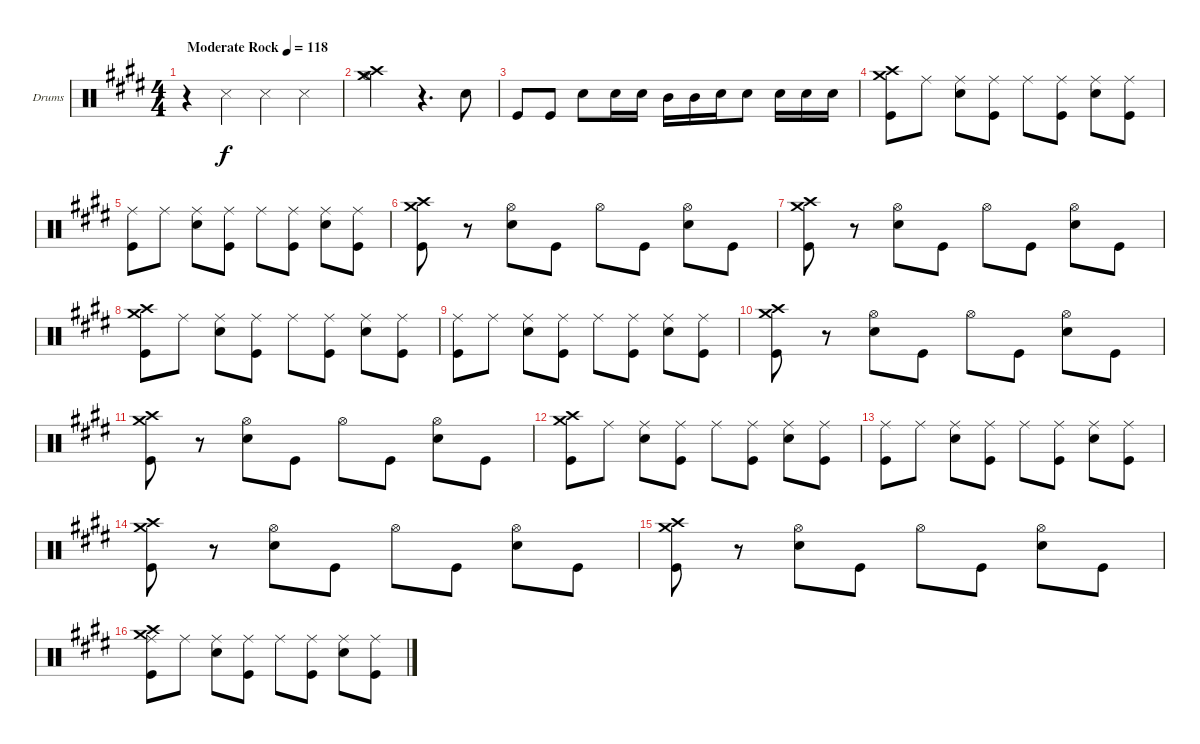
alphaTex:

\defaultSystemsLayout 4
\bracketExtendMode groupsimilarinstruments
\firstSystemTrackNameOrientation horizontal
\otherSystemsTrackNameOrientation horizontal
\track ("Drumkit" "Drums") {instrument percussion}
\staff {score}
\articulation defaults
\ts (4 4)
\tempo (118 "Moderate Rock")
\clef neutral
\ks e
r.4{dy f} "Snare (side stick) 3".4 "Snare (side stick) 3".4 "Snare (side stick) 3".4 |
("Crash medium (hit)" "Crash high (hit)" "Hi-Hat (open)").2 r.4{d} "Snare (hit) 2".8 |
"Kick (hit)".8 "Kick (hit)".8 "Snare (hit) 2".8 "Snare (hit) 2".16 "Snare (hit) 2".16 "Mid Tom (hit)".16 "Mid Tom (hit)".16 "Snare (hit) 2".16 "Snare (hit) 2".8 "Snare (hit) 2".16 "Snare (hit) 2".16 "Snare (hit) 2".16 |
("Crash medium (hit)" "Crash high (hit)" "Kick (hit)").8 "Ride (middle)".8 ("Ride (middle)" "Snare (hit) 2").8 ("Ride (middle)" "Kick (hit)").8 "Ride (middle)".8 ("Ride (middle)" "Kick (hit)").8 ("Ride (middle)" "Snare (hit) 2").8 ("Ride (middle)" "Kick (hit)").8 |
("Ride (middle)" "Kick (hit)").8 "Ride (middle)".8 ("Ride (middle)" "Snare (hit) 2").8 ("Ride (middle)" "Kick (hit)").8 "Ride (middle)".8 ("Ride (middle)" "Kick (hit)").8 ("Ride (middle)" "Snare (hit) 2").8 ("Ride (middle)" "Kick (hit)").8 |
("Crash medium (hit)" "Crash high (hit)" "Kick (hit)").8 r.8 ("Hi-Hat (open)" "Snare (hit) 2").8 "Kick (hit)".8 "Hi-Hat (open)".8 "Kick (hit)".8 ("Hi-Hat (open)" "Snare (hit) 2").8 "Kick (hit)".8 |
("Crash medium (hit)" "Crash high (hit)" "Kick (hit)").8 r.8 ("Hi-Hat (open)" "Snare (hit) 2").8 "Kick (hit)".8 "Hi-Hat (open)".8 "Kick (hit)".8 ("Hi-Hat (open)" "Snare (hit) 2").8 "Kick (hit)".8 |
("Crash medium (hit)" "Crash high (hit)" "Kick (hit)").8 "Ride (middle)".8 ("Ride (middle)" "Snare (hit) 2").8 ("Ride (middle)" "Kick (hit)").8 "Ride (middle)".8 ("Ride (middle)" "Kick (hit)").8 ("Ride (middle)" "Snare (hit) 2").8 ("Ride (middle)" "Kick (hit)").8 |
("Ride (middle)" "Kick (hit)").8 "Ride (middle)".8 ("Ride (middle)" "Snare (hit) 2").8 ("Ride (middle)" "Kick (hit)").8 "Ride (middle)".8 ("Ride (middle)" "Kick (hit)").8 ("Ride (middle)" "Snare (hit) 2").8 ("Ride (middle)" "Kick (hit)").8 |
("Crash medium (hit)" "Crash high (hit)" "Kick (hit)").8 r.8 ("Hi-Hat (open)" "Snare (hit) 2").8 "Kick (hit)".8 "Hi-Hat (open)".8 "Kick (hit)".8 ("Hi-Hat (open)" "Snare (hit) 2").8 "Kick (hit)".8 |
("Crash medium (hit)" "Crash high (hit)" "Kick (hit)").8 r.8 ("Hi-Hat (open)" "Snare (hit) 2").8 "Kick (hit)".8 "Hi-Hat (open)".8 "Kick (hit)".8 ("Hi-Hat (open)" "Snare (hit) 2").8 "Kick (hit)".8 |
("Crash medium (hit)" "Crash high (hit)" "Kick (hit)").8 "Ride (middle)".8 ("Ride (middle)" "Snare (hit) 2").8 ("Ride (middle)" "Kick (hit)").8 "Ride (middle)".8 ("Ride (middle)" "Kick (hit)").8 ("Ride (middle)" "Snare (hit) 2").8 ("Ride (middle)" "Kick (hit)").8 |
("Ride (middle)" "Kick (hit)").8 "Ride (middle)".8 ("Ride (middle)" "Snare (hit) 2").8 ("Ride (middle)" "Kick (hit)").8 "Ride (middle)".8 ("Ride (middle)" "Kick (hit)").8 ("Ride (middle)" "Snare (hit) 2").8 ("Ride (middle)" "Kick (hit)").8 |
("Crash medium (hit)" "Crash high (hit)" "Kick (hit)").8 r.8 ("Hi-Hat (open)" "Snare (hit) 2").8 "Kick (hit)".8 "Hi-Hat (open)".8 "Kick (hit)".8 ("Hi-Hat (open)" "Snare (hit) 2").8 "Kick (hit)".8 |
("Crash medium (hit)" "Crash high (hit)" "Kick (hit)").8 r.8 ("Hi-Hat (open)" "Snare (hit) 2").8 "Kick (hit)".8 "Hi-Hat (open)".8 "Kick (hit)".8 ("Hi-Hat (open)" "Snare (hit) 2").8 "Kick (hit)".8 |
("Crash high (hit)" "Crash medium (hit)" "Ride (middle)" "Kick (hit)").8 "Ride (middle)".8 ("Ride (middle)" "Snare (hit) 2").8 ("Ride (middle)" "Kick (hit)").8 "Ride (middle)".8 ("Ride (middle)" "Kick (hit)").8 ("Ride (middle)" "Snare (hit) 2").8 ("Ride (middle)" "Kick (hit)").8
